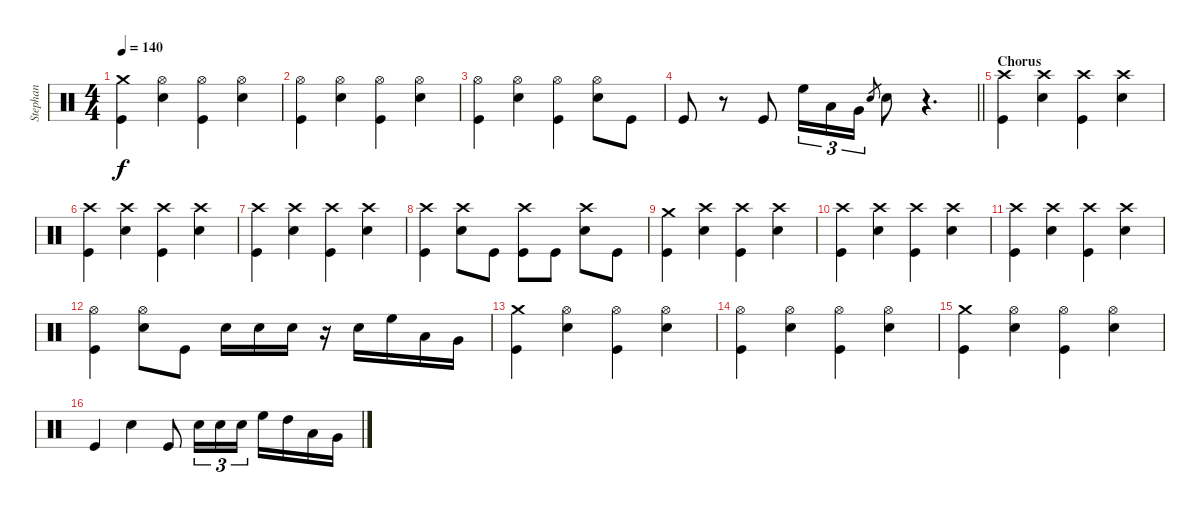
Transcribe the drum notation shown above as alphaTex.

\track ("Stephan" "Stephan") {instrument percussion}
\staff {score}
\articulation defaults
\ts (4 4)
\tempo 140
\clef neutral
\ks c
("Kick (hit)" "Crash medium (hit)").4{dy f} ("Snare (hit) 2" "Hi-Hat (open)").4 ("Kick (hit)" "Hi-Hat (open)").4 ("Snare (hit) 2" "Hi-Hat (open)").4 |
("Kick (hit)" "Hi-Hat (open)").4 ("Snare (hit) 2" "Hi-Hat (open)").4 ("Kick (hit)" "Hi-Hat (open)").4 ("Snare (hit) 2" "Hi-Hat (open)").4 |
("Kick (hit)" "Hi-Hat (open)").4 ("Snare (hit) 2" "Hi-Hat (open)").4 ("Kick (hit)" "Hi-Hat (open)").4 ("Snare (hit) 2" "Hi-Hat (open)").8 "Kick (hit)".8 |
\barLineRight lightlight "Kick (hit)".8
r.8 "Kick (hit)".8 "High Floor Tom (hit)".16{tu (3 2)} "Low Tom (hit)".16{tu (3 2)} "Very Low Tom (hit)".16{tu (3 2)} "Snare (hit) 2".8{gr} "Snare (hit) 2".8 r.4{d} |
\section ("" "Chorus")
("Kick (hit)" "Crash high (hit)").4 ("Snare (hit) 2" "Crash high (hit)").4 ("Kick (hit)" "Crash high (hit)").4 ("Snare (hit) 2" "Crash high (hit)").4 |
("Kick (hit)" "Crash high (hit)").4 ("Snare (hit) 2" "Crash high (hit)").4 ("Kick (hit)" "Crash high (hit)").4 ("Snare (hit) 2" "Crash high (hit)").4 |
("Kick (hit)" "Crash high (hit)").4 ("Snare (hit) 2" "Crash high (hit)").4 ("Kick (hit)" "Crash high (hit)").4 ("Snare (hit) 2" "Crash high (hit)").4 |
("Kick (hit)" "Crash high (hit)").4 ("Snare (hit) 2" "Crash high (hit)").8 "Kick (hit)".8 ("Kick (hit)" "Crash high (hit)").8 "Kick (hit)".8 ("Snare (hit) 2" "Crash high (hit)").8 "Kick (hit)".8 |
("Kick (hit)" "Crash medium (hit)").4 ("Snare (hit) 2" "Crash high (hit)").4 ("Kick (hit)" "Crash high (hit)").4 ("Snare (hit) 2" "Crash high (hit)").4 |
("Kick (hit)" "Crash high (hit)").4 ("Snare (hit) 2" "Crash high (hit)").4 ("Kick (hit)" "Crash high (hit)").4 ("Snare (hit) 2" "Crash high (hit)").4 |
("Kick (hit)" "Crash high (hit)").4 ("Snare (hit) 2" "Crash high (hit)").4 ("Kick (hit)" "Crash high (hit)").4 ("Snare (hit) 2" "Crash high (hit)").4 |
("Kick (hit)" "Hi-Hat (open)").4 ("Snare (hit) 2" "Hi-Hat (open)").8 "Kick (hit)".8 "Snare (hit) 2".16 "Snare (hit) 2".16 "Snare (hit) 2".16 r.16 "Snare (hit) 2".16 "High Floor Tom (hit)".16 "Low Tom (hit)".16 "Very Low Tom (hit)".16 |
("Kick (hit)" "Crash medium (hit)").4 ("Snare (hit) 2" "Hi-Hat (open)").4 ("Kick (hit)" "Hi-Hat (open)").4 ("Snare (hit) 2" "Hi-Hat (open)").4 |
("Kick (hit)" "Hi-Hat (open)").4 ("Snare (hit) 2" "Hi-Hat (open)").4 ("Kick (hit)" "Hi-Hat (open)").4 ("Snare (hit) 2" "Hi-Hat (open)").4 |
("Kick (hit)" "Crash medium (hit)").4 ("Snare (hit) 2" "Hi-Hat (open)").4 ("Kick (hit)" "Hi-Hat (open)").4 ("Snare (hit) 2" "Hi-Hat (open)").4 |
"Kick (hit)".4 "Snare (hit) 2".4 "Kick (hit)".8 "Snare (hit) 2".16{tu (3 2)} "Snare (hit) 2".16{tu (3 2)} "Snare (hit) 2".16{tu (3 2)} "High Floor Tom (hit)".16 "High Tom (hit)".16 "Low Tom (hit)".16 "Very Low Tom (hit)".16
